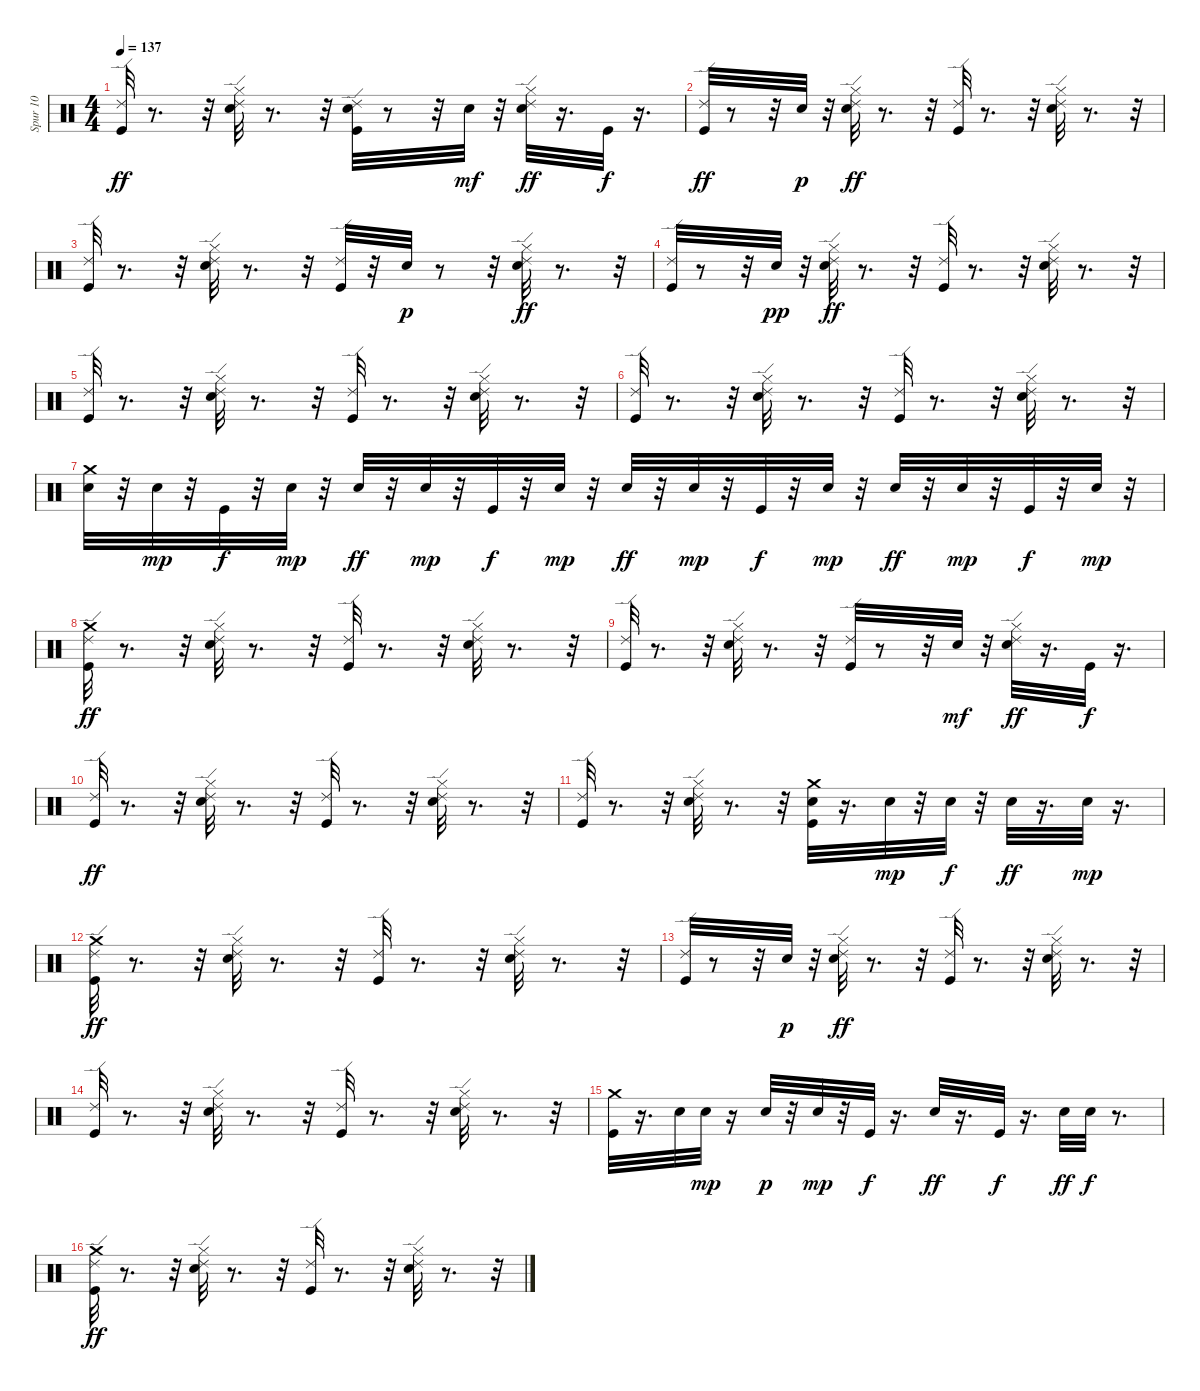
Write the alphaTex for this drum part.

\track ("Spur 10" "Spur 10") {instrument percussion}
\staff {score}
\articulation defaults
\ts (4 4)
\tempo 137
\clef neutral
\ks c
("Ride (edge) 2" "Kick (hit)").32{dy ff} r.8{d} r.32 ("Ride (edge) 2" "Electric Snare (hit)" "Hi-Hat (closed)").32 r.8{d} r.32 ("Ride (edge) 2" "Kick (hit)" "Electric Snare (hit)").32 r.8 r.32 "Electric Snare (hit)".32{dy mf} r.32 ("Ride (edge) 2" "Electric Snare (hit)" "Hi-Hat (closed)").32{dy ff} r.16{d} "Kick (hit)".32{dy f} r.16{d} |
("Ride (edge) 2" "Kick (hit)").32{dy ff} r.8 r.32 "Electric Snare (hit)".32{dy p} r.32 ("Ride (edge) 2" "Electric Snare (hit)" "Hi-Hat (closed)").32{dy ff} r.8{d} r.32 ("Ride (edge) 2" "Kick (hit)").32 r.8{d} r.32 ("Ride (edge) 2" "Electric Snare (hit)" "Hi-Hat (closed)").32 r.8{d} r.32 |
("Ride (edge) 2" "Kick (hit)").32 r.8{d} r.32 ("Ride (edge) 2" "Electric Snare (hit)" "Hi-Hat (closed)").32 r.8{d} r.32 ("Ride (edge) 2" "Kick (hit)").32 r.32 "Electric Snare (hit)".32{dy p} r.8 r.32 ("Ride (edge) 2" "Electric Snare (hit)" "Hi-Hat (closed)").32{dy ff} r.8{d} r.32 |
("Ride (edge) 2" "Kick (hit)").32 r.8 r.32 "Electric Snare (hit)".32{dy pp} r.32 ("Ride (edge) 2" "Electric Snare (hit)" "Hi-Hat (closed)").32{dy ff} r.8{d} r.32 ("Ride (edge) 2" "Kick (hit)").32 r.8{d} r.32 ("Ride (edge) 2" "Electric Snare (hit)" "Hi-Hat (closed)").32 r.8{d} r.32 |
("Ride (edge) 2" "Kick (hit)").32 r.8{d} r.32 ("Ride (edge) 2" "Electric Snare (hit)" "Hi-Hat (closed)").32 r.8{d} r.32 ("Ride (edge) 2" "Kick (hit)").32 r.8{d} r.32 ("Ride (edge) 2" "Electric Snare (hit)" "Hi-Hat (closed)").32 r.8{d} r.32 |
("Ride (edge) 2" "Kick (hit)").32 r.8{d} r.32 ("Ride (edge) 2" "Electric Snare (hit)" "Hi-Hat (closed)").32 r.8{d} r.32 ("Ride (edge) 2" "Kick (hit)").32 r.8{d} r.32 ("Ride (edge) 2" "Electric Snare (hit)" "Hi-Hat (closed)").32 r.8{d} r.32 |
("Electric Snare (hit)" "Crash medium (hit)").32 r.32 "Electric Snare (hit)".32{dy mp} r.32 "Kick (hit)".32{dy f} r.32 "Electric Snare (hit)".32{dy mp} r.32 "Electric Snare (hit)".32{dy ff} r.32 "Electric Snare (hit)".32{dy mp} r.32 "Kick (hit)".32{dy f} r.32 "Electric Snare (hit)".32{dy mp} r.32 "Electric Snare (hit)".32{dy ff} r.32 "Electric Snare (hit)".32{dy mp} r.32 "Kick (hit)".32{dy f} r.32 "Electric Snare (hit)".32{dy mp} r.32 "Electric Snare (hit)".32{dy ff} r.32 "Electric Snare (hit)".32{dy mp} r.32 "Kick (hit)".32{dy f} r.32 "Electric Snare (hit)".32{dy mp} r.32 |
("Crash medium (hit)" "Ride (edge) 2" "Kick (hit)").32{dy ff} r.8{d} r.32 ("Ride (edge) 2" "Electric Snare (hit)" "Hi-Hat (closed)").32 r.8{d} r.32 ("Ride (edge) 2" "Kick (hit)").32 r.8{d} r.32 ("Ride (edge) 2" "Electric Snare (hit)" "Hi-Hat (closed)").32 r.8{d} r.32 |
("Ride (edge) 2" "Kick (hit)").32 r.8{d} r.32 ("Ride (edge) 2" "Electric Snare (hit)" "Hi-Hat (closed)").32 r.8{d} r.32 ("Ride (edge) 2" "Kick (hit)").32 r.8 r.32 "Electric Snare (hit)".32{dy mf} r.32 ("Ride (edge) 2" "Electric Snare (hit)" "Hi-Hat (closed)").32{dy ff} r.16{d} "Kick (hit)".32{dy f} r.16{d} |
("Ride (edge) 2" "Kick (hit)").32{dy ff} r.8{d} r.32 ("Ride (edge) 2" "Electric Snare (hit)" "Hi-Hat (closed)").32 r.8{d} r.32 ("Ride (edge) 2" "Kick (hit)").32 r.8{d} r.32 ("Ride (edge) 2" "Electric Snare (hit)" "Hi-Hat (closed)").32 r.8{d} r.32 |
("Ride (edge) 2" "Kick (hit)").32 r.8{d} r.32 ("Ride (edge) 2" "Electric Snare (hit)" "Hi-Hat (closed)").32 r.8{d} r.32 ("Kick (hit)" "Electric Snare (hit)" "Crash medium (hit)").32 r.16{d} "Electric Snare (hit)".32{dy mp} r.32 "Electric Snare (hit)".32{dy f} r.32 "Electric Snare (hit)".32{dy ff} r.16{d} "Electric Snare (hit)".32{dy mp} r.16{d} |
("Crash medium (hit)" "Ride (edge) 2" "Kick (hit)").32{dy ff} r.8{d} r.32 ("Ride (edge) 2" "Electric Snare (hit)" "Hi-Hat (closed)").32 r.8{d} r.32 ("Ride (edge) 2" "Kick (hit)").32 r.8{d} r.32 ("Ride (edge) 2" "Electric Snare (hit)" "Hi-Hat (closed)").32 r.8{d} r.32 |
("Ride (edge) 2" "Kick (hit)").32 r.8 r.32 "Electric Snare (hit)".32{dy p} r.32 ("Ride (edge) 2" "Electric Snare (hit)" "Hi-Hat (closed)").32{dy ff} r.8{d} r.32 ("Ride (edge) 2" "Kick (hit)").32 r.8{d} r.32 ("Ride (edge) 2" "Electric Snare (hit)" "Hi-Hat (closed)").32 r.8{d} r.32 |
("Ride (edge) 2" "Kick (hit)").32 r.8{d} r.32 ("Ride (edge) 2" "Electric Snare (hit)" "Hi-Hat (closed)").32 r.8{d} r.32 ("Ride (edge) 2" "Kick (hit)").32 r.8{d} r.32 ("Ride (edge) 2" "Electric Snare (hit)" "Hi-Hat (closed)").32 r.8{d} r.32 |
("Kick (hit)" "Crash medium (hit)").32 r.16{d} "Electric Snare (hit)".32 "Electric Snare (hit)".32{dy mp} r.16 "Electric Snare (hit)".32{dy p} r.32 "Electric Snare (hit)".32{dy mp} r.32 "Kick (hit)".32{dy f} r.16{d} "Electric Snare (hit)".32{dy ff} r.16{d} "Kick (hit)".32{dy f} r.16{d} "Electric Snare (hit)".32{dy ff} "Electric Snare (hit)".32{dy f} r.8{d} |
("Crash medium (hit)" "Ride (edge) 2" "Kick (hit)").32{dy ff} r.8{d} r.32 ("Ride (edge) 2" "Electric Snare (hit)" "Hi-Hat (closed)").32 r.8{d} r.32 ("Ride (edge) 2" "Kick (hit)").32 r.8{d} r.32 ("Ride (edge) 2" "Electric Snare (hit)" "Hi-Hat (closed)").32 r.8{d} r.32
